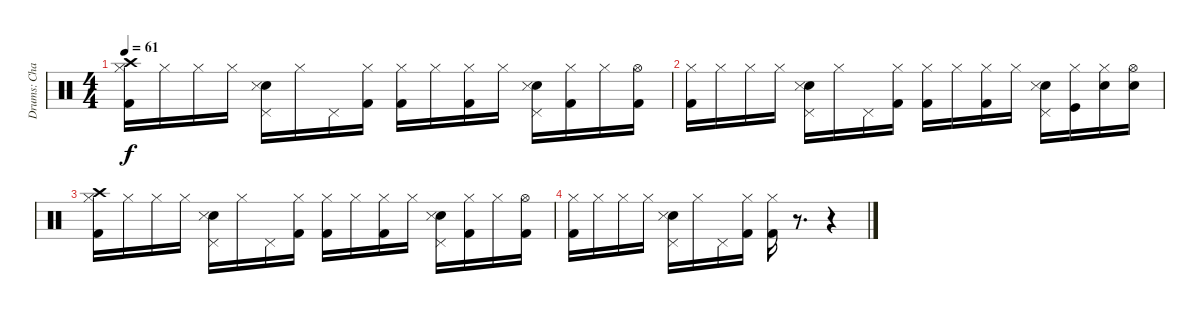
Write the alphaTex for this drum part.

\track ("Drums: Charlie Sierra" "Drums: Cha") {instrument percussion}
\staff {score}
\articulation defaults
\ts (4 4)
\tempo 61
\clef neutral
\ks c
("Crash high (hit)" "Hi-Hat (closed)" "Kick (hit) 2").16{dy f} "Hi-Hat (closed)".16 "Hi-Hat (closed)".16 "Hi-Hat (closed)".16 ("Pedal Hi-Hat (hit)" "Snare (hit) 2" "Snare (side stick) 3").16 "Hi-Hat (closed)".16 "Pedal Hi-Hat (hit)".16 ("Hi-Hat (closed)" "Kick (hit) 2").16 ("Hi-Hat (closed)" "Kick (hit) 2").16 "Hi-Hat (closed)".16 ("Hi-Hat (closed)" "Kick (hit) 2").16 "Hi-Hat (closed)".16 ("Pedal Hi-Hat (hit)" "Snare (hit) 2" "Snare (side stick) 3").16 ("Hi-Hat (closed)" "Kick (hit) 2").16 "Hi-Hat (closed)".16 ("Hi-Hat (open)" "Kick (hit) 2").16 |
("Hi-Hat (closed)" "Kick (hit) 2").16 "Hi-Hat (closed)".16 "Hi-Hat (closed)".16 "Hi-Hat (closed)".16 ("Pedal Hi-Hat (hit)" "Snare (hit) 2" "Snare (side stick) 3").16 "Hi-Hat (closed)".16 "Pedal Hi-Hat (hit)".16 ("Hi-Hat (closed)" "Kick (hit) 2").16 ("Hi-Hat (closed)" "Kick (hit) 2").16 "Hi-Hat (closed)".16 ("Hi-Hat (closed)" "Kick (hit) 2").16 "Hi-Hat (closed)".16 ("Pedal Hi-Hat (hit)" "Snare (hit) 2" "Snare (side stick) 3").16 ("Kick (hit)" "Hi-Hat (closed)").16 ("Snare (hit) 2" "Hi-Hat (closed)").16 ("Snare (hit) 2" "Hi-Hat (open)").16 |
("Crash high (hit)" "Hi-Hat (closed)" "Kick (hit) 2").16 "Hi-Hat (closed)".16 "Hi-Hat (closed)".16 "Hi-Hat (closed)".16 ("Pedal Hi-Hat (hit)" "Snare (hit) 2" "Snare (side stick) 3").16 "Hi-Hat (closed)".16 "Pedal Hi-Hat (hit)".16 ("Hi-Hat (closed)" "Kick (hit) 2").16 ("Hi-Hat (closed)" "Kick (hit) 2").16 "Hi-Hat (closed)".16 ("Hi-Hat (closed)" "Kick (hit) 2").16 "Hi-Hat (closed)".16 ("Pedal Hi-Hat (hit)" "Snare (hit) 2" "Snare (side stick) 3").16 ("Hi-Hat (closed)" "Kick (hit) 2").16 "Hi-Hat (closed)".16 ("Hi-Hat (open)" "Kick (hit) 2").16 |
("Hi-Hat (closed)" "Kick (hit) 2").16 "Hi-Hat (closed)".16 "Hi-Hat (closed)".16 "Hi-Hat (closed)".16 ("Pedal Hi-Hat (hit)" "Snare (hit) 2" "Snare (side stick) 3").16 "Hi-Hat (closed)".16 "Pedal Hi-Hat (hit)".16 ("Hi-Hat (closed)" "Kick (hit) 2").16 ("Hi-Hat (closed)" "Kick (hit) 2").16 r.8{d} r.4
